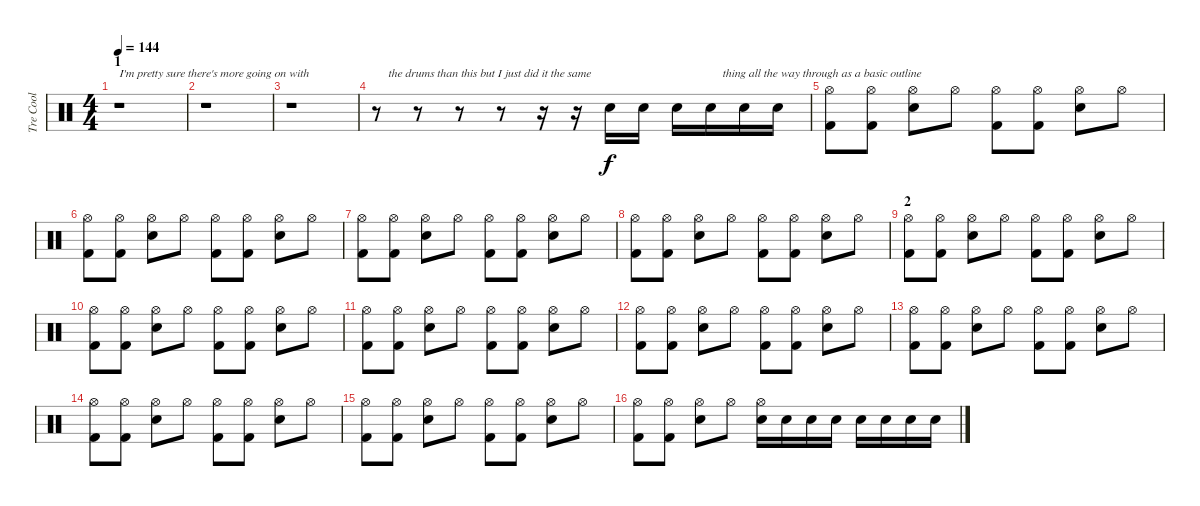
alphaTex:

\track ("Tre Cool" "Tre Cool") {instrument percussion}
\staff {score}
\articulation defaults
\ts (4 4)
\section ("" "1")
\tempo 144
\clef neutral
\ks c
r.1{txt "I'm pretty sure there's more going on with" dy f} |
r.1 |
r.1 |
r.8{txt "    the drums than this but I just did it the same"} r.8 r.8 r.8 r.16 r.16 "Electric Snare (hit)".16 "Electric Snare (hit)".16 "Electric Snare (hit)".16 "Electric Snare (hit)".16{txt "    thing all the way through as a basic outline"} "Electric Snare (hit)".16 "Electric Snare (hit)".16 |
("Hi-Hat (open)" "Kick (hit) 2").8 ("Hi-Hat (open)" "Kick (hit) 2").8 ("Hi-Hat (open)" "Electric Snare (hit)").8 "Hi-Hat (open)".8 ("Hi-Hat (open)" "Kick (hit) 2").8 ("Hi-Hat (open)" "Kick (hit) 2").8 ("Hi-Hat (open)" "Electric Snare (hit)").8 "Hi-Hat (open)".8 |
("Hi-Hat (open)" "Kick (hit) 2").8 ("Hi-Hat (open)" "Kick (hit) 2").8 ("Hi-Hat (open)" "Electric Snare (hit)").8 "Hi-Hat (open)".8 ("Hi-Hat (open)" "Kick (hit) 2").8 ("Hi-Hat (open)" "Kick (hit) 2").8 ("Hi-Hat (open)" "Electric Snare (hit)").8 "Hi-Hat (open)".8 |
("Hi-Hat (open)" "Kick (hit) 2").8 ("Hi-Hat (open)" "Kick (hit) 2").8 ("Hi-Hat (open)" "Electric Snare (hit)").8 "Hi-Hat (open)".8 ("Hi-Hat (open)" "Kick (hit) 2").8 ("Hi-Hat (open)" "Kick (hit) 2").8 ("Hi-Hat (open)" "Electric Snare (hit)").8 "Hi-Hat (open)".8 |
("Hi-Hat (open)" "Kick (hit) 2").8 ("Hi-Hat (open)" "Kick (hit) 2").8 ("Hi-Hat (open)" "Electric Snare (hit)").8 "Hi-Hat (open)".8 ("Hi-Hat (open)" "Kick (hit) 2").8 ("Hi-Hat (open)" "Kick (hit) 2").8 ("Hi-Hat (open)" "Electric Snare (hit)").8 "Hi-Hat (open)".8 |
\section ("" "2")
("Hi-Hat (open)" "Kick (hit) 2").8 ("Hi-Hat (open)" "Kick (hit) 2").8 ("Hi-Hat (open)" "Electric Snare (hit)").8 "Hi-Hat (open)".8 ("Hi-Hat (open)" "Kick (hit) 2").8 ("Hi-Hat (open)" "Kick (hit) 2").8 ("Hi-Hat (open)" "Electric Snare (hit)").8 "Hi-Hat (open)".8 |
("Hi-Hat (open)" "Kick (hit) 2").8 ("Hi-Hat (open)" "Kick (hit) 2").8 ("Hi-Hat (open)" "Electric Snare (hit)").8 "Hi-Hat (open)".8 ("Hi-Hat (open)" "Kick (hit) 2").8 ("Hi-Hat (open)" "Kick (hit) 2").8 ("Hi-Hat (open)" "Electric Snare (hit)").8 "Hi-Hat (open)".8 |
("Hi-Hat (open)" "Kick (hit) 2").8 ("Hi-Hat (open)" "Kick (hit) 2").8 ("Hi-Hat (open)" "Electric Snare (hit)").8 "Hi-Hat (open)".8 ("Hi-Hat (open)" "Kick (hit) 2").8 ("Hi-Hat (open)" "Kick (hit) 2").8 ("Hi-Hat (open)" "Electric Snare (hit)").8 "Hi-Hat (open)".8 |
("Hi-Hat (open)" "Kick (hit) 2").8 ("Hi-Hat (open)" "Kick (hit) 2").8 ("Hi-Hat (open)" "Electric Snare (hit)").8 "Hi-Hat (open)".8 ("Hi-Hat (open)" "Kick (hit) 2").8 ("Hi-Hat (open)" "Kick (hit) 2").8 ("Hi-Hat (open)" "Electric Snare (hit)").8 "Hi-Hat (open)".8 |
("Hi-Hat (open)" "Kick (hit) 2").8 ("Hi-Hat (open)" "Kick (hit) 2").8 ("Hi-Hat (open)" "Electric Snare (hit)").8 "Hi-Hat (open)".8 ("Hi-Hat (open)" "Kick (hit) 2").8 ("Hi-Hat (open)" "Kick (hit) 2").8 ("Hi-Hat (open)" "Electric Snare (hit)").8 "Hi-Hat (open)".8 |
("Hi-Hat (open)" "Kick (hit) 2").8 ("Hi-Hat (open)" "Kick (hit) 2").8 ("Hi-Hat (open)" "Electric Snare (hit)").8 "Hi-Hat (open)".8 ("Hi-Hat (open)" "Kick (hit) 2").8 ("Hi-Hat (open)" "Kick (hit) 2").8 ("Hi-Hat (open)" "Electric Snare (hit)").8 "Hi-Hat (open)".8 |
("Hi-Hat (open)" "Kick (hit) 2").8 ("Hi-Hat (open)" "Kick (hit) 2").8 ("Hi-Hat (open)" "Electric Snare (hit)").8 "Hi-Hat (open)".8 ("Hi-Hat (open)" "Kick (hit) 2").8 ("Hi-Hat (open)" "Kick (hit) 2").8 ("Hi-Hat (open)" "Electric Snare (hit)").8 "Hi-Hat (open)".8 |
("Hi-Hat (open)" "Kick (hit) 2").8 ("Hi-Hat (open)" "Kick (hit) 2").8 ("Hi-Hat (open)" "Electric Snare (hit)").8 "Hi-Hat (open)".8 ("Hi-Hat (open)" "Electric Snare (hit)").16 "Electric Snare (hit)".16 "Electric Snare (hit)".16 "Electric Snare (hit)".16 "Electric Snare (hit)".16 "Electric Snare (hit)".16 "Electric Snare (hit)".16 "Electric Snare (hit)".16
